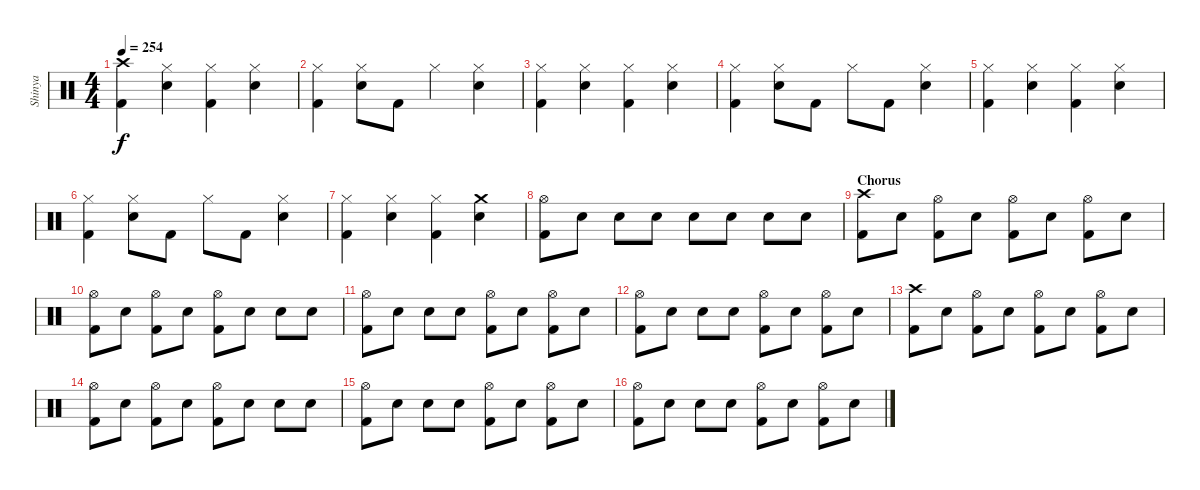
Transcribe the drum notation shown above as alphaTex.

\track ("Shinya" "Shinya") {instrument percussion}
\staff {score}
\articulation defaults
\ts (4 4)
\tempo 254
\clef neutral
\ks c
("Kick (hit) 2" "Crash high (hit)").4{dy f} ("Electric Snare (hit)" "Hi-Hat (closed)").4 ("Hi-Hat (closed)" "Kick (hit) 2").4 ("Electric Snare (hit)" "Hi-Hat (closed)").4 |
("Hi-Hat (closed)" "Kick (hit) 2").4 ("Hi-Hat (closed)" "Electric Snare (hit)").8 "Kick (hit) 2".8 "Hi-Hat (closed)".4 ("Electric Snare (hit)" "Hi-Hat (closed)").4 |
("Hi-Hat (closed)" "Kick (hit) 2").4 ("Electric Snare (hit)" "Hi-Hat (closed)").4 ("Hi-Hat (closed)" "Kick (hit) 2").4 ("Electric Snare (hit)" "Hi-Hat (closed)").4 |
("Hi-Hat (closed)" "Kick (hit) 2").4 ("Electric Snare (hit)" "Hi-Hat (closed)").8 "Kick (hit) 2".8 "Hi-Hat (closed)".8 "Kick (hit) 2".8 ("Electric Snare (hit)" "Hi-Hat (closed)").4 |
("Hi-Hat (closed)" "Kick (hit) 2").4 ("Electric Snare (hit)" "Hi-Hat (closed)").4 ("Hi-Hat (closed)" "Kick (hit) 2").4 ("Electric Snare (hit)" "Hi-Hat (closed)").4 |
("Hi-Hat (closed)" "Kick (hit) 2").4 ("Electric Snare (hit)" "Hi-Hat (closed)").8 "Kick (hit) 2".8 "Hi-Hat (closed)".8 "Kick (hit) 2".8 ("Electric Snare (hit)" "Hi-Hat (closed)").4 |
("Hi-Hat (closed)" "Kick (hit) 2").4 ("Electric Snare (hit)" "Hi-Hat (closed)").4 ("Hi-Hat (closed)" "Kick (hit) 2").4 ("Crash medium (hit)" "Electric Snare (hit)").4 |
("Kick (hit) 2" "Hi-Hat (open)").8 "Electric Snare (hit)".8 "Electric Snare (hit)".8 "Electric Snare (hit)".8 "Electric Snare (hit)".8 "Electric Snare (hit)".8 "Electric Snare (hit)".8 "Electric Snare (hit)".8 |
\section ("" "Chorus")
("Crash high (hit)" "Kick (hit) 2").8 "Electric Snare (hit)".8 ("Hi-Hat (open)" "Kick (hit) 2").8 "Electric Snare (hit)".8 ("Hi-Hat (open)" "Kick (hit) 2").8 "Electric Snare (hit)".8 ("Hi-Hat (open)" "Kick (hit) 2").8 "Electric Snare (hit)".8 |
("Hi-Hat (open)" "Kick (hit) 2").8 "Electric Snare (hit)".8 ("Hi-Hat (open)" "Kick (hit) 2").8 "Electric Snare (hit)".8 ("Hi-Hat (open)" "Kick (hit) 2").8 "Electric Snare (hit)".8 "Electric Snare (hit)".8 "Electric Snare (hit)".8 |
("Hi-Hat (open)" "Kick (hit) 2").8 "Electric Snare (hit)".8 "Electric Snare (hit)".8 "Electric Snare (hit)".8 ("Hi-Hat (open)" "Kick (hit) 2").8 "Electric Snare (hit)".8 ("Hi-Hat (open)" "Kick (hit) 2").8 "Electric Snare (hit)".8 |
("Hi-Hat (open)" "Kick (hit) 2").8 "Electric Snare (hit)".8 "Electric Snare (hit)".8 "Electric Snare (hit)".8 ("Hi-Hat (open)" "Kick (hit) 2").8 "Electric Snare (hit)".8 ("Hi-Hat (open)" "Kick (hit) 2").8 "Electric Snare (hit)".8 |
("Crash high (hit)" "Kick (hit) 2").8 "Electric Snare (hit)".8 ("Hi-Hat (open)" "Kick (hit) 2").8 "Electric Snare (hit)".8 ("Hi-Hat (open)" "Kick (hit) 2").8 "Electric Snare (hit)".8 ("Hi-Hat (open)" "Kick (hit) 2").8 "Electric Snare (hit)".8 |
("Hi-Hat (open)" "Kick (hit) 2").8 "Electric Snare (hit)".8 ("Hi-Hat (open)" "Kick (hit) 2").8 "Electric Snare (hit)".8 ("Hi-Hat (open)" "Kick (hit) 2").8 "Electric Snare (hit)".8 "Electric Snare (hit)".8 "Electric Snare (hit)".8 |
("Hi-Hat (open)" "Kick (hit) 2").8 "Electric Snare (hit)".8 "Electric Snare (hit)".8 "Electric Snare (hit)".8 ("Hi-Hat (open)" "Kick (hit) 2").8 "Electric Snare (hit)".8 ("Hi-Hat (open)" "Kick (hit) 2").8 "Electric Snare (hit)".8 |
("Hi-Hat (open)" "Kick (hit) 2").8 "Electric Snare (hit)".8 "Electric Snare (hit)".8 "Electric Snare (hit)".8 ("Hi-Hat (open)" "Kick (hit) 2").8 "Electric Snare (hit)".8 ("Kick (hit) 2" "Hi-Hat (open)").8 "Electric Snare (hit)".8
